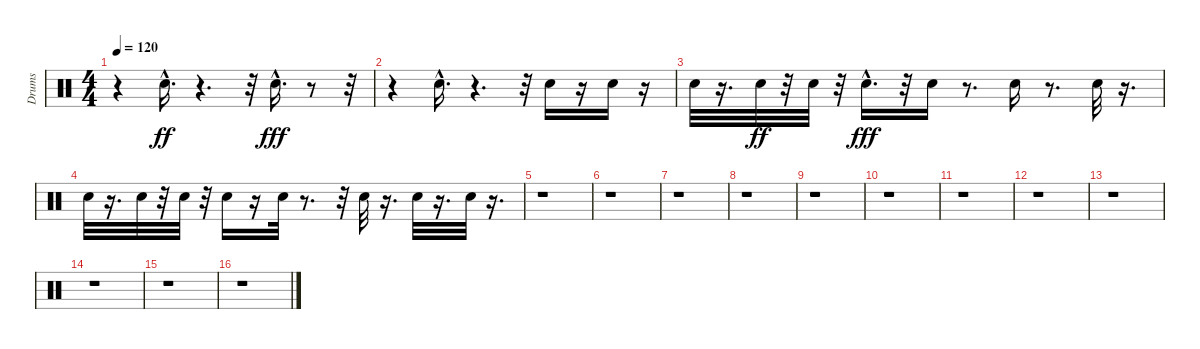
\track ("Drums" "Drums") {instrument percussion}
\staff {score}
\articulation defaults
\ts (4 4)
\tempo 120
\clef neutral
\ks c
r.4{dy fff} "Electric Snare (hit)"{hac}.16{d dy ff} r.4{d} r.32 "Electric Snare (hit)"{hac}.16{d dy fff} r.8 r.32 |
r.4 "Electric Snare (hit)"{hac}.16{d} r.4{d} r.32 "Electric Snare (hit)".16 r.16 "Electric Snare (hit)".16 r.16 |
"Electric Snare (hit)".32 r.16{d} "Electric Snare (hit)".32{dy ff} r.32 "Electric Snare (hit)".32 r.32 "Electric Snare (hit)"{hac}.16{d dy fff} r.32 "Electric Snare (hit)".16 r.8{d} "Electric Snare (hit)".16 r.8{d} "Electric Snare (hit)".32 r.16{d} |
"Electric Snare (hit)".32 r.16{d} "Electric Snare (hit)".32 r.32 "Electric Snare (hit)".32 r.32 "Electric Snare (hit)".16 r.16 "Electric Snare (hit)".32 r.8{d} r.32 "Electric Snare (hit)".32 r.16{d} "Electric Snare (hit)".32 r.16{d} "Electric Snare (hit)".32 r.16{d} |
r.1 |
r.1 |
r.1 |
r.1 |
r.1 |
r.1 |
r.1 |
r.1 |
r.1 |
r.1 |
r.1 |
r.1
